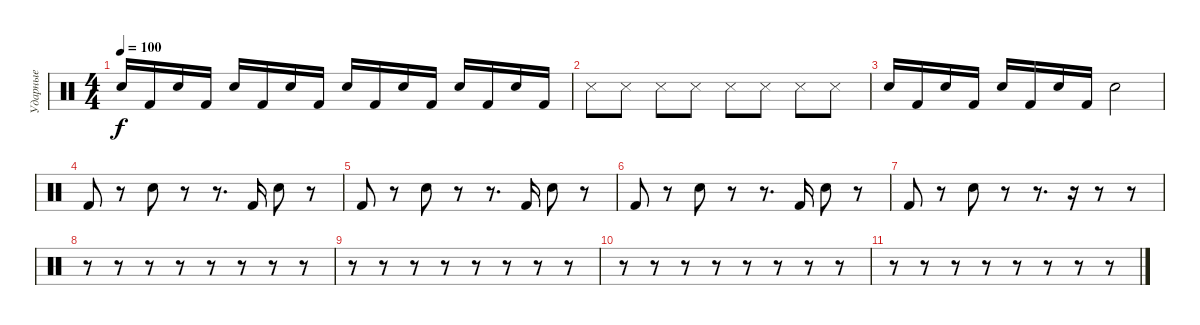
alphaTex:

\track ("Ударные" "Ударные") {instrument percussion}
\staff {score}
\articulation defaults
\ts (4 4)
\tempo 100
\clef neutral
\ks c "Electric Snare (hit)".16{dy f} "Kick (hit) 2".16 "Electric Snare (hit)".16 "Kick (hit) 2".16 "Electric Snare (hit)".16 "Kick (hit) 2".16 "Electric Snare (hit)".16 "Kick (hit) 2".16 "Electric Snare (hit)".16 "Kick (hit) 2".16 "Electric Snare (hit)".16 "Kick (hit) 2".16 "Electric Snare (hit)".16 "Kick (hit) 2".16 "Electric Snare (hit)".16 "Kick (hit) 2".16
|
"Snare (side stick) 3".8 "Snare (side stick) 3".8 "Snare (side stick) 3".8 "Snare (side stick) 3".8 "Snare (side stick) 3".8 "Snare (side stick) 3".8 "Snare (side stick) 3".8 "Snare (side stick) 3".8 |
"Electric Snare (hit)".16 "Kick (hit) 2".16 "Electric Snare (hit)".16 "Kick (hit) 2".16 "Electric Snare (hit)".16 "Kick (hit) 2".16 "Electric Snare (hit)".16 "Kick (hit) 2".16 "Electric Snare (hit)".2 |
"Kick (hit) 2".8 r.8 "Electric Snare (hit)".8 r.8 r.8{d} "Kick (hit) 2".16 "Electric Snare (hit)".8 r.8 |
"Kick (hit) 2".8 r.8 "Electric Snare (hit)".8 r.8 r.8{d} "Kick (hit) 2".16 "Electric Snare (hit)".8 r.8 |
"Kick (hit) 2".8 r.8 "Electric Snare (hit)".8 r.8 r.8{d} "Kick (hit) 2".16 "Electric Snare (hit)".8 r.8 |
"Kick (hit) 2".8 r.8 "Electric Snare (hit)".8 r.8 r.8{d} r.16 r.8 r.8 |
r.8 r.8 r.8 r.8 r.8 r.8 r.8 r.8 |
r.8 r.8 r.8 r.8 r.8 r.8 r.8 r.8 |
r.8 r.8 r.8 r.8 r.8 r.8 r.8 r.8 |
r.8 r.8 r.8 r.8 r.8 r.8 r.8 r.8
